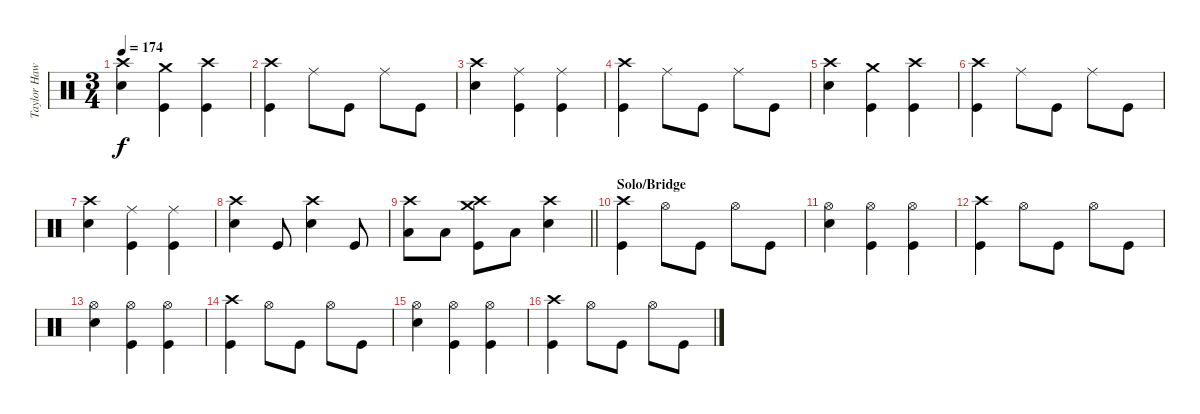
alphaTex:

\track ("Taylor Hawkins - Drums" "Taylor Haw") {instrument percussion}
\staff {score}
\articulation defaults
\ts (3 4)
\tempo 174
\clef neutral
\ks c
("Crash high (hit)" "Snare (hit) 2").4{dy f} ("Crash medium (hit)" "Kick (hit)").4 ("Crash high (hit)" "Kick (hit)").4 |
("Crash high (hit)" "Kick (hit)").4 "Ride (middle)".8 "Kick (hit)".8 "Ride (middle)".8 "Kick (hit)".8 |
("Crash high (hit)" "Snare (hit) 2").4 ("Ride (middle)" "Kick (hit)").4 ("Ride (middle)" "Kick (hit)").4 |
("Crash high (hit)" "Kick (hit)").4 "Ride (middle)".8 "Kick (hit)".8 "Ride (middle)".8 "Kick (hit)".8 |
("Crash high (hit)" "Snare (hit) 2").4 ("Crash medium (hit)" "Kick (hit)").4 ("Crash high (hit)" "Kick (hit)").4 |
("Crash high (hit)" "Kick (hit)").4 "Ride (middle)".8 "Kick (hit)".8 "Ride (middle)".8 "Kick (hit)".8 |
("Crash high (hit)" "Snare (hit) 2").4 ("Ride (middle)" "Kick (hit)").4 ("Ride (middle)" "Kick (hit)").4 |
("Crash high (hit)" "Snare (hit) 2").4 "Kick (hit)".8 ("Crash high (hit)" "Snare (hit) 2").4 "Kick (hit)".8 |
\barLineRight lightlight
("Crash high (hit)" "Low Tom (hit)").8 "Low Tom (hit)".8 ("Crash high (hit)" "Crash medium (hit)" "Kick (hit)").8 "Low Tom (hit)".8 ("Crash high (hit)" "Snare (hit) 2").4 |
\section ("" "Solo/Bridge")
("Crash high (hit)" "Kick (hit)").4 "Hi-Hat (open)".8 "Kick (hit)".8 "Hi-Hat (open)".8 "Kick (hit)".8 |
("Hi-Hat (open)" "Snare (hit) 2").4 ("Hi-Hat (open)" "Kick (hit)").4 ("Hi-Hat (open)" "Kick (hit)").4 |
("Crash high (hit)" "Kick (hit)").4 "Hi-Hat (open)".8 "Kick (hit)".8 "Hi-Hat (open)".8 "Kick (hit)".8 |
("Hi-Hat (open)" "Snare (hit) 2").4 ("Hi-Hat (open)" "Kick (hit)").4 ("Hi-Hat (open)" "Kick (hit)").4 |
("Crash high (hit)" "Kick (hit)").4 "Hi-Hat (open)".8 "Kick (hit)".8 "Hi-Hat (open)".8 "Kick (hit)".8 |
("Hi-Hat (open)" "Snare (hit) 2").4 ("Hi-Hat (open)" "Kick (hit)").4 ("Hi-Hat (open)" "Kick (hit)").4 |
("Crash high (hit)" "Kick (hit)").4 "Hi-Hat (open)".8 "Kick (hit)".8 "Hi-Hat (open)".8 "Kick (hit)".8
